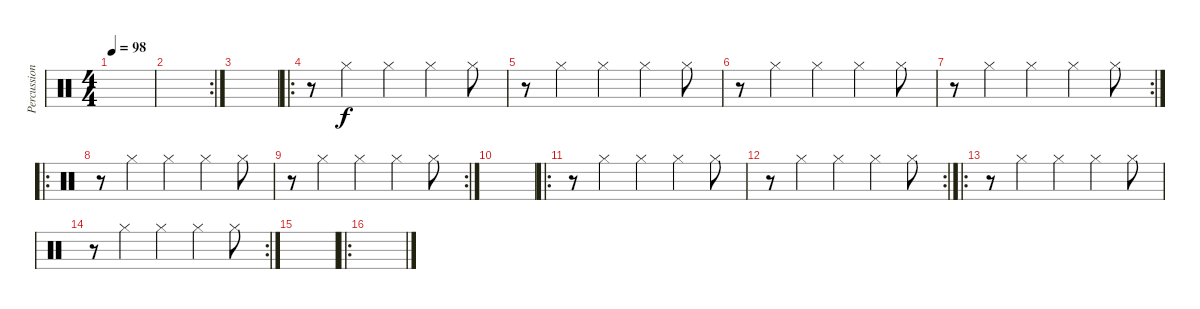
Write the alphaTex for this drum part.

\track ("Percussion" "Percussion") {instrument percussion}
\staff {score}
\articulation defaults
\ts (4 4)
\tempo 98
\clef neutral
\ks c
|
\rc 2
|
|
\ro
r.8 "Hi-Hat (closed)".4 "Hi-Hat (closed)".4 "Hi-Hat (closed)".4 "Hi-Hat (closed)".8 |
r.8 "Hi-Hat (closed)".4 "Hi-Hat (closed)".4 "Hi-Hat (closed)".4 "Hi-Hat (closed)".8 |
r.8 "Hi-Hat (closed)".4 "Hi-Hat (closed)".4 "Hi-Hat (closed)".4 "Hi-Hat (closed)".8 |
\rc 2
r.8 "Hi-Hat (closed)".4 "Hi-Hat (closed)".4 "Hi-Hat (closed)".4 "Hi-Hat (closed)".8 |
\ro
r.8 "Hi-Hat (closed)".4 "Hi-Hat (closed)".4 "Hi-Hat (closed)".4 "Hi-Hat (closed)".8 |
\rc 2
r.8 "Hi-Hat (closed)".4 "Hi-Hat (closed)".4 "Hi-Hat (closed)".4 "Hi-Hat (closed)".8 |
|
\ro
r.8 "Hi-Hat (closed)".4 "Hi-Hat (closed)".4 "Hi-Hat (closed)".4 "Hi-Hat (closed)".8 |
\rc 2
r.8 "Hi-Hat (closed)".4 "Hi-Hat (closed)".4 "Hi-Hat (closed)".4 "Hi-Hat (closed)".8 |
\ro
r.8 "Hi-Hat (closed)".4 "Hi-Hat (closed)".4 "Hi-Hat (closed)".4 "Hi-Hat (closed)".8 |
\rc 2
r.8 "Hi-Hat (closed)".4 "Hi-Hat (closed)".4 "Hi-Hat (closed)".4 "Hi-Hat (closed)".8 |
|
\ro
